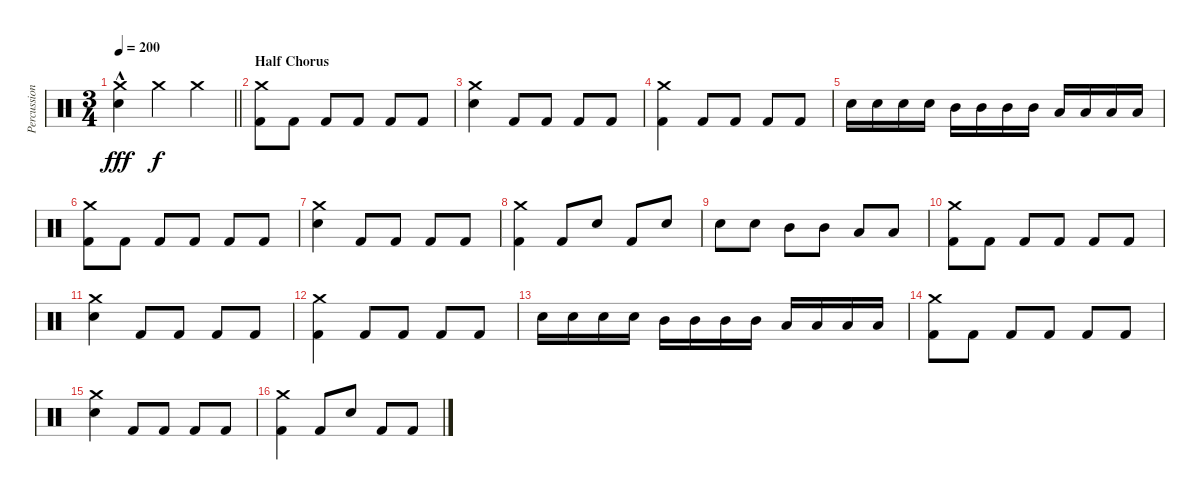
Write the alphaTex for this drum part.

\track ("Percussion" "Percussion") {instrument percussion}
\staff {score}
\articulation defaults
\ts (3 4)
\tempo 200
\clef neutral
\barLineRight lightlight
\ks c
("Crash medium (hit)" "Snare (hit) 2"{hac}).4{dy fff} "Crash medium (hit)".4{dy f} "Crash medium (hit)".4 |
\section ("" "Half Chorus")
("Crash medium (hit)" "Kick (hit) 2").8 "Kick (hit) 2".8 "Kick (hit) 2".8 "Kick (hit) 2".8 "Kick (hit) 2".8 "Kick (hit) 2".8 |
("Crash medium (hit)" "Snare (hit) 2").4 "Kick (hit) 2".8 "Kick (hit) 2".8 "Kick (hit) 2".8 "Kick (hit) 2".8 |
("Crash medium (hit)" "Kick (hit) 2").4 "Kick (hit) 2".8 "Kick (hit) 2".8 "Kick (hit) 2".8 "Kick (hit) 2".8 |
"Snare (hit) 2".16 "Snare (hit) 2".16 "Snare (hit) 2".16 "Snare (hit) 2".16 "Mid Tom (hit)".16 "Mid Tom (hit)".16 "Mid Tom (hit)".16 "Mid Tom (hit)".16 "Low Tom (hit)".16 "Low Tom (hit)".16 "Low Tom (hit)".16 "Low Tom (hit)".16 |
("Crash medium (hit)" "Kick (hit) 2").8 "Kick (hit) 2".8 "Kick (hit) 2".8 "Kick (hit) 2".8 "Kick (hit) 2".8 "Kick (hit) 2".8 |
("Crash medium (hit)" "Snare (hit) 2").4 "Kick (hit) 2".8 "Kick (hit) 2".8 "Kick (hit) 2".8 "Kick (hit) 2".8 |
("Crash medium (hit)" "Kick (hit) 2").4 "Kick (hit) 2".8 "Snare (hit) 2".8 "Kick (hit) 2".8 "Snare (hit) 2".8 |
"Snare (hit) 2".8 "Snare (hit) 2".8 "Mid Tom (hit)".8 "Mid Tom (hit)".8 "Low Tom (hit)".8 "Low Tom (hit)".8 |
("Crash medium (hit)" "Kick (hit) 2").8 "Kick (hit) 2".8 "Kick (hit) 2".8 "Kick (hit) 2".8 "Kick (hit) 2".8 "Kick (hit) 2".8 |
("Crash medium (hit)" "Snare (hit) 2").4 "Kick (hit) 2".8 "Kick (hit) 2".8 "Kick (hit) 2".8 "Kick (hit) 2".8 |
("Crash medium (hit)" "Kick (hit) 2").4 "Kick (hit) 2".8 "Kick (hit) 2".8 "Kick (hit) 2".8 "Kick (hit) 2".8 |
"Snare (hit) 2".16 "Snare (hit) 2".16 "Snare (hit) 2".16 "Snare (hit) 2".16 "Mid Tom (hit)".16 "Mid Tom (hit)".16 "Mid Tom (hit)".16 "Mid Tom (hit)".16 "Low Tom (hit)".16 "Low Tom (hit)".16 "Low Tom (hit)".16 "Low Tom (hit)".16 |
("Crash medium (hit)" "Kick (hit) 2").8 "Kick (hit) 2".8 "Kick (hit) 2".8 "Kick (hit) 2".8 "Kick (hit) 2".8 "Kick (hit) 2".8 |
("Crash medium (hit)" "Snare (hit) 2").4 "Kick (hit) 2".8 "Kick (hit) 2".8 "Kick (hit) 2".8 "Kick (hit) 2".8 |
("Crash medium (hit)" "Kick (hit) 2").4 "Kick (hit) 2".8 "Snare (hit) 2".8 "Kick (hit) 2".8 "Kick (hit) 2".8
